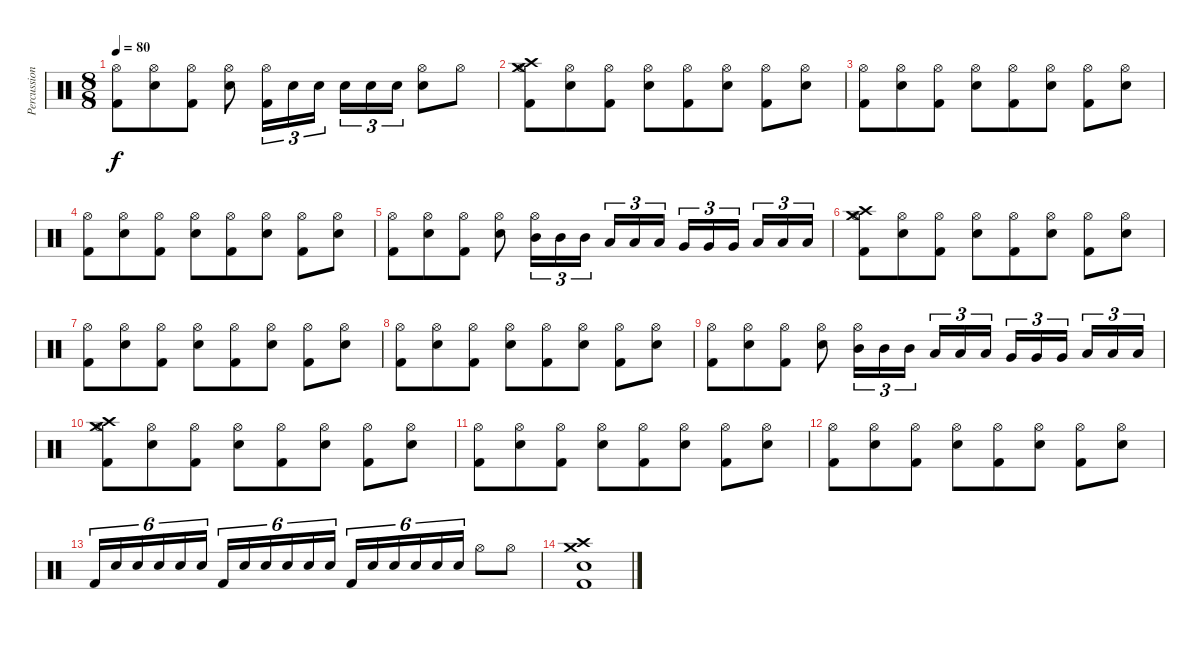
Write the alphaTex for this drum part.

\track ("Percussion" "Percussion") {instrument percussion}
\staff {score}
\articulation defaults
\ts (8 8)
\tempo 80
\clef neutral
\ks c
("Hi-Hat (open)" "Kick (hit) 2").8{dy f} ("Hi-Hat (open)" "Electric Snare (hit)").8 ("Hi-Hat (open)" "Kick (hit) 2").8 ("Hi-Hat (open)" "Electric Snare (hit)").8 ("Hi-Hat (open)" "Kick (hit) 2").16{tu (3 2)} "Electric Snare (hit)".16{tu (3 2)} "Electric Snare (hit)".16{tu (3 2)} "Electric Snare (hit)".16{tu (3 2)} "Electric Snare (hit)".16{tu (3 2)} "Electric Snare (hit)".16{tu (3 2)} ("Hi-Hat (open)" "Electric Snare (hit)").8 "Hi-Hat (open)".8 |
("Crash high (hit)" "Hi-Hat (open)" "Kick (hit) 2" "Crash medium (hit)").8 ("Hi-Hat (open)" "Electric Snare (hit)").8 ("Hi-Hat (open)" "Kick (hit) 2").8 ("Hi-Hat (open)" "Electric Snare (hit)").8 ("Hi-Hat (open)" "Kick (hit) 2").8 ("Hi-Hat (open)" "Electric Snare (hit)").8 ("Hi-Hat (open)" "Kick (hit) 2").8 ("Hi-Hat (open)" "Electric Snare (hit)").8 |
("Hi-Hat (open)" "Kick (hit) 2").8 ("Hi-Hat (open)" "Electric Snare (hit)").8 ("Hi-Hat (open)" "Kick (hit) 2").8 ("Hi-Hat (open)" "Electric Snare (hit)").8 ("Hi-Hat (open)" "Kick (hit) 2").8 ("Hi-Hat (open)" "Electric Snare (hit)").8 ("Hi-Hat (open)" "Kick (hit) 2").8 ("Hi-Hat (open)" "Electric Snare (hit)").8 |
("Hi-Hat (open)" "Kick (hit) 2").8 ("Hi-Hat (open)" "Electric Snare (hit)").8 ("Hi-Hat (open)" "Kick (hit) 2").8 ("Hi-Hat (open)" "Electric Snare (hit)").8 ("Hi-Hat (open)" "Kick (hit) 2").8 ("Hi-Hat (open)" "Electric Snare (hit)").8 ("Hi-Hat (open)" "Kick (hit) 2").8 ("Hi-Hat (open)" "Electric Snare (hit)").8 |
("Hi-Hat (open)" "Kick (hit) 2").8 ("Hi-Hat (open)" "Electric Snare (hit)").8 ("Hi-Hat (open)" "Kick (hit) 2").8 ("Hi-Hat (open)" "Electric Snare (hit)").8 ("Hi-Hat (open)" "Mid Tom (hit)").16{tu (3 2)} "Mid Tom (hit)".16{tu (3 2)} "Mid Tom (hit)".16{tu (3 2)} "Low Tom (hit)".16{tu (3 2)} "Low Tom (hit)".16{tu (3 2)} "Low Tom (hit)".16{tu (3 2)} "Very Low Tom (hit)".16{tu (3 2)} "Very Low Tom (hit)".16{tu (3 2)} "Very Low Tom (hit)".16{tu (3 2)} "Low Floor Tom (hit)".16{tu (3 2)} "Low Floor Tom (hit)".16{tu (3 2)} "Low Floor Tom (hit)".16{tu (3 2)} |
("Crash high (hit)" "Hi-Hat (open)" "Kick (hit) 2" "Crash medium (hit)").8 ("Hi-Hat (open)" "Electric Snare (hit)").8 ("Hi-Hat (open)" "Kick (hit) 2").8 ("Hi-Hat (open)" "Electric Snare (hit)").8 ("Hi-Hat (open)" "Kick (hit) 2").8 ("Hi-Hat (open)" "Electric Snare (hit)").8 ("Hi-Hat (open)" "Kick (hit) 2").8 ("Hi-Hat (open)" "Electric Snare (hit)").8 |
("Hi-Hat (open)" "Kick (hit) 2").8 ("Hi-Hat (open)" "Electric Snare (hit)").8 ("Hi-Hat (open)" "Kick (hit) 2").8 ("Hi-Hat (open)" "Electric Snare (hit)").8 ("Hi-Hat (open)" "Kick (hit) 2").8 ("Hi-Hat (open)" "Electric Snare (hit)").8 ("Hi-Hat (open)" "Kick (hit) 2").8 ("Hi-Hat (open)" "Electric Snare (hit)").8 |
("Hi-Hat (open)" "Kick (hit) 2").8 ("Hi-Hat (open)" "Electric Snare (hit)").8 ("Hi-Hat (open)" "Kick (hit) 2").8 ("Hi-Hat (open)" "Electric Snare (hit)").8 ("Hi-Hat (open)" "Kick (hit) 2").8 ("Hi-Hat (open)" "Electric Snare (hit)").8 ("Hi-Hat (open)" "Kick (hit) 2").8 ("Hi-Hat (open)" "Electric Snare (hit)").8 |
("Hi-Hat (open)" "Kick (hit) 2").8 ("Hi-Hat (open)" "Electric Snare (hit)").8 ("Hi-Hat (open)" "Kick (hit) 2").8 ("Hi-Hat (open)" "Electric Snare (hit)").8 ("Hi-Hat (open)" "Mid Tom (hit)").16{tu (3 2)} "Mid Tom (hit)".16{tu (3 2)} "Mid Tom (hit)".16{tu (3 2)} "Low Tom (hit)".16{tu (3 2)} "Low Tom (hit)".16{tu (3 2)} "Low Tom (hit)".16{tu (3 2)} "Very Low Tom (hit)".16{tu (3 2)} "Very Low Tom (hit)".16{tu (3 2)} "Very Low Tom (hit)".16{tu (3 2)} "Low Floor Tom (hit)".16{tu (3 2)} "Low Floor Tom (hit)".16{tu (3 2)} "Low Floor Tom (hit)".16{tu (3 2)} |
("Crash high (hit)" "Hi-Hat (open)" "Kick (hit) 2" "Crash medium (hit)").8 ("Hi-Hat (open)" "Electric Snare (hit)").8 ("Hi-Hat (open)" "Kick (hit) 2").8 ("Hi-Hat (open)" "Electric Snare (hit)").8 ("Hi-Hat (open)" "Kick (hit) 2").8 ("Hi-Hat (open)" "Electric Snare (hit)").8 ("Hi-Hat (open)" "Kick (hit) 2").8 ("Hi-Hat (open)" "Electric Snare (hit)").8 |
("Hi-Hat (open)" "Kick (hit) 2").8 ("Hi-Hat (open)" "Electric Snare (hit)").8 ("Hi-Hat (open)" "Kick (hit) 2").8 ("Hi-Hat (open)" "Electric Snare (hit)").8 ("Hi-Hat (open)" "Kick (hit) 2").8 ("Hi-Hat (open)" "Electric Snare (hit)").8 ("Hi-Hat (open)" "Kick (hit) 2").8 ("Hi-Hat (open)" "Electric Snare (hit)").8 |
("Hi-Hat (open)" "Kick (hit) 2").8 ("Hi-Hat (open)" "Electric Snare (hit)").8 ("Hi-Hat (open)" "Kick (hit) 2").8 ("Hi-Hat (open)" "Electric Snare (hit)").8 ("Hi-Hat (open)" "Kick (hit) 2").8 ("Hi-Hat (open)" "Electric Snare (hit)").8 ("Hi-Hat (open)" "Kick (hit) 2").8 ("Hi-Hat (open)" "Electric Snare (hit)").8 |
"Kick (hit) 2".16{tu (6 4)} "Electric Snare (hit)".16{tu (6 4)} "Electric Snare (hit)".16{tu (6 4)} "Electric Snare (hit)".16{tu (6 4)} "Electric Snare (hit)".16{tu (6 4)} "Electric Snare (hit)".16{tu (6 4)} "Kick (hit) 2".16{tu (6 4)} "Electric Snare (hit)".16{tu (6 4)} "Electric Snare (hit)".16{tu (6 4)} "Electric Snare (hit)".16{tu (6 4)} "Electric Snare (hit)".16{tu (6 4)} "Electric Snare (hit)".16{tu (6 4)} "Kick (hit) 2".16{tu (6 4)} "Electric Snare (hit)".16{tu (6 4)} "Electric Snare (hit)".16{tu (6 4)} "Electric Snare (hit)".16{tu (6 4)} "Electric Snare (hit)".16{tu (6 4)} "Electric Snare (hit)".16{tu (6 4)} "Hi-Hat (open)".8 "Hi-Hat (open)".8 |
("Kick (hit) 2" "Crash medium (hit)" "Electric Snare (hit)" "Crash high (hit)").1
